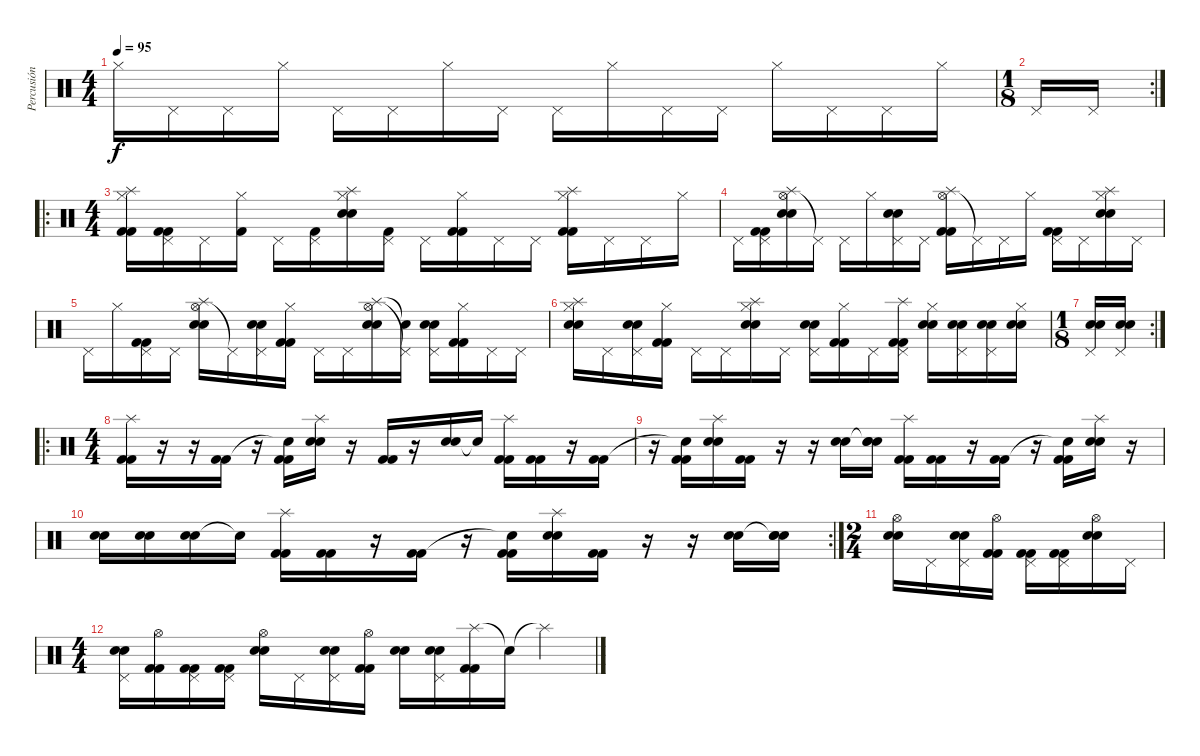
\track ("Percusión" "Percusión") {instrument percussion}
\staff {score}
\articulation defaults
\ts (4 4)
\tempo 95
\clef neutral
\ks c "Hi-Hat (closed)".16{dy f} "Pedal Hi-Hat (hit)".16 "Pedal Hi-Hat (hit)".16 "Hi-Hat (closed)".16 "Pedal Hi-Hat (hit)".16 "Pedal Hi-Hat (hit)".16 "Hi-Hat (closed)".16 "Pedal Hi-Hat (hit)".16 "Pedal Hi-Hat (hit)".16 "Hi-Hat (closed)".16 "Pedal Hi-Hat (hit)".16 "Pedal Hi-Hat (hit)".16 "Hi-Hat (closed)".16 "Pedal Hi-Hat (hit)".16 "Pedal Hi-Hat (hit)".16 "Hi-Hat (closed)".16
|
\rc 2
\ts (1 8)
"Pedal Hi-Hat (hit)".16 "Pedal Hi-Hat (hit)".16 |
\ro
\ts (4 4)
("Hi-Hat (closed)" "Splash (hit)" "Kick (hit) 2" "Kick (hit) 2").16 ("Pedal Hi-Hat (hit)" "Kick (hit) 2" "Kick (hit) 2").16 "Pedal Hi-Hat (hit)".16 ("Hi-Hat (closed)" "Kick (hit) 2").16 "Pedal Hi-Hat (hit)".16 ("Pedal Hi-Hat (hit)" "Kick (hit) 2").16 ("Hi-Hat (closed)" "Splash (hit)" "Electric Snare (hit)" "Electric Snare (hit)").16 ("Pedal Hi-Hat (hit)" "Kick (hit) 2").16 "Pedal Hi-Hat (hit)".16 ("Hi-Hat (closed)" "Kick (hit) 2" "Kick (hit) 2").16 "Pedal Hi-Hat (hit)".16 "Pedal Hi-Hat (hit)".16 ("Hi-Hat (closed)" "Splash (hit)" "Kick (hit) 2" "Kick (hit) 2").16 "Pedal Hi-Hat (hit)".16 "Pedal Hi-Hat (hit)".16 "Hi-Hat (closed)".16 |
"Pedal Hi-Hat (hit)".16 ("Pedal Hi-Hat (hit)" "Kick (hit) 2" "Kick (hit) 2").16 ("Hi-Hat (open)" "Splash (hit)" "Electric Snare (hit)" "Electric Snare (hit)").16 "Pedal Hi-Hat (hit)"{t}.16 "Pedal Hi-Hat (hit)".16 "Hi-Hat (closed)".16 ("Pedal Hi-Hat (hit)" "Electric Snare (hit)" "Electric Snare (hit)").16 "Pedal Hi-Hat (hit)".16 ("Hi-Hat (open)" "Splash (hit)" "Kick (hit) 2" "Kick (hit) 2").16 "Pedal Hi-Hat (hit)"{t}.16 "Pedal Hi-Hat (hit)".16 "Hi-Hat (closed)".16 ("Pedal Hi-Hat (hit)" "Kick (hit) 2" "Kick (hit) 2").16 "Pedal Hi-Hat (hit)".16 ("Hi-Hat (closed)" "Splash (hit)" "Electric Snare (hit)" "Electric Snare (hit)").16 "Pedal Hi-Hat (hit)".16 |
"Pedal Hi-Hat (hit)".16 "Hi-Hat (closed)".16 ("Pedal Hi-Hat (hit)" "Kick (hit) 2" "Kick (hit) 2").16 "Pedal Hi-Hat (hit)".16 ("Hi-Hat (open)" "Splash (hit)" "Electric Snare (hit)" "Electric Snare (hit)").16 "Pedal Hi-Hat (hit)"{t}.16 ("Pedal Hi-Hat (hit)" "Electric Snare (hit)" "Electric Snare (hit)").16 ("Hi-Hat (closed)" "Kick (hit) 2" "Kick (hit) 2").16 "Pedal Hi-Hat (hit)".16 "Pedal Hi-Hat (hit)".16 ("Hi-Hat (open)" "Splash (hit)" "Electric Snare (hit)" "Electric Snare (hit)").16 ("Pedal Hi-Hat (hit)"{t} "Snare (hit)"{t}).16 ("Pedal Hi-Hat (hit)" "Electric Snare (hit)" "Electric Snare (hit)").16 ("Hi-Hat (closed)" "Kick (hit) 2" "Kick (hit) 2").16 "Pedal Hi-Hat (hit)".16 "Pedal Hi-Hat (hit)".16 |
("Hi-Hat (closed)" "Splash (hit)" "Electric Snare (hit)" "Electric Snare (hit)").16 "Pedal Hi-Hat (hit)".16 ("Pedal Hi-Hat (hit)" "Electric Snare (hit)" "Electric Snare (hit)").16 ("Hi-Hat (closed)" "Kick (hit) 2" "Kick (hit) 2").16 "Pedal Hi-Hat (hit)".16 "Pedal Hi-Hat (hit)".16 ("Hi-Hat (closed)" "Splash (hit)" "Electric Snare (hit)" "Electric Snare (hit)").16 "Pedal Hi-Hat (hit)".16 ("Pedal Hi-Hat (hit)" "Electric Snare (hit)" "Electric Snare (hit)").16 ("Hi-Hat (closed)" "Kick (hit) 2" "Kick (hit) 2").16 "Pedal Hi-Hat (hit)".16 ("Pedal Hi-Hat (hit)" "Splash (hit)" "Kick (hit) 2" "Kick (hit) 2").16 ("Hi-Hat (closed)" "Electric Snare (hit)" "Electric Snare (hit)").16 ("Pedal Hi-Hat (hit)" "Electric Snare (hit)" "Electric Snare (hit)").16 ("Pedal Hi-Hat (hit)" "Electric Snare (hit)" "Electric Snare (hit)").16 ("Hi-Hat (closed)" "Electric Snare (hit)" "Electric Snare (hit)").16 |
\rc 2
\ts (1 8)
("Pedal Hi-Hat (hit)" "Electric Snare (hit)" "Electric Snare (hit)").16 ("Pedal Hi-Hat (hit)" "Electric Snare (hit)" "Electric Snare (hit)").16 |
\ro
\ts (4 4)
("Splash (hit)" "Kick (hit) 2" "Kick (hit) 2").16 r.16 r.16 ("Kick (hit) 2" "Kick (hit) 2").16 r.16 ("Snare (hit)"{t} "Kick (hit) 2" "Kick (hit) 2").16 ("Splash (hit)" "Electric Snare (hit)" "Electric Snare (hit)").16 r.16 ("Kick (hit) 2" "Kick (hit) 2").16 r.16 ("Electric Snare (hit)" "Electric Snare (hit)").16 "Snare (hit)"{t}.16 ("Splash (hit)" "Kick (hit) 2" "Kick (hit) 2").16 ("Kick (hit) 2" "Kick (hit) 2").16 r.16 ("Kick (hit) 2" "Kick (hit) 2").16 |
r.16 ("Snare (hit)"{t} "Kick (hit) 2" "Kick (hit) 2").16 ("Splash (hit)" "Electric Snare (hit)" "Electric Snare (hit)").16 ("Kick (hit) 2" "Kick (hit) 2").16 r.16 r.16 ("Electric Snare (hit)" "Electric Snare (hit)").16 ("Snare (hit)"{t} "Electric Snare (hit)" "Electric Snare (hit)").16 ("Splash (hit)" "Kick (hit) 2" "Kick (hit) 2").16 ("Kick (hit) 2" "Kick (hit) 2").16 r.16 ("Kick (hit) 2" "Kick (hit) 2").16 r.16 ("Snare (hit)"{t} "Kick (hit) 2" "Kick (hit) 2").16 ("Splash (hit)" "Electric Snare (hit)" "Electric Snare (hit)").16 r.16 |
\rc 2
("Electric Snare (hit)" "Electric Snare (hit)").16 ("Electric Snare (hit)" "Electric Snare (hit)").16 ("Electric Snare (hit)" "Electric Snare (hit)").16 "Snare (hit)"{t}.16 ("Splash (hit)" "Kick (hit) 2" "Kick (hit) 2").16 ("Kick (hit) 2" "Kick (hit) 2").16 r.16 ("Kick (hit) 2" "Kick (hit) 2").16 r.16 ("Snare (hit)"{t} "Kick (hit) 2" "Kick (hit) 2").16 ("Splash (hit)" "Electric Snare (hit)" "Electric Snare (hit)").16 ("Kick (hit) 2" "Kick (hit) 2").16 r.16 r.16 ("Electric Snare (hit)" "Electric Snare (hit)").16 ("Snare (hit)"{t} "Electric Snare (hit)" "Electric Snare (hit)").16 |
\ts (2 4)
("Hi-Hat (open)" "Electric Snare (hit)" "Electric Snare (hit)").16 "Pedal Hi-Hat (hit)".16 ("Pedal Hi-Hat (hit)" "Electric Snare (hit)" "Electric Snare (hit)").16 ("Hi-Hat (open)" "Kick (hit) 2" "Kick (hit) 2").16 ("Pedal Hi-Hat (hit)" "Kick (hit) 2" "Kick (hit) 2").16 ("Pedal Hi-Hat (hit)" "Kick (hit) 2" "Kick (hit) 2").16 ("Hi-Hat (open)" "Electric Snare (hit)" "Electric Snare (hit)").16 "Pedal Hi-Hat (hit)".16 |
\ts (4 4)
("Pedal Hi-Hat (hit)" "Electric Snare (hit)" "Electric Snare (hit)").16 ("Hi-Hat (open)" "Kick (hit) 2" "Kick (hit) 2").16 ("Pedal Hi-Hat (hit)" "Kick (hit) 2" "Kick (hit) 2").16 ("Pedal Hi-Hat (hit)" "Kick (hit) 2" "Kick (hit) 2").16 ("Hi-Hat (open)" "Electric Snare (hit)" "Electric Snare (hit)").16 "Pedal Hi-Hat (hit)".16 ("Pedal Hi-Hat (hit)" "Electric Snare (hit)" "Electric Snare (hit)").16 ("Hi-Hat (open)" "Kick (hit) 2" "Kick (hit) 2").16 ("Electric Snare (hit)" "Electric Snare (hit)").16 ("Pedal Hi-Hat (hit)" "Electric Snare (hit)" "Electric Snare (hit)").16 ("Splash (hit)" "Kick (hit) 2" "Kick (hit) 2").16 "Snare (hit)"{t}.16 "Splash (hit)"{t}.4
